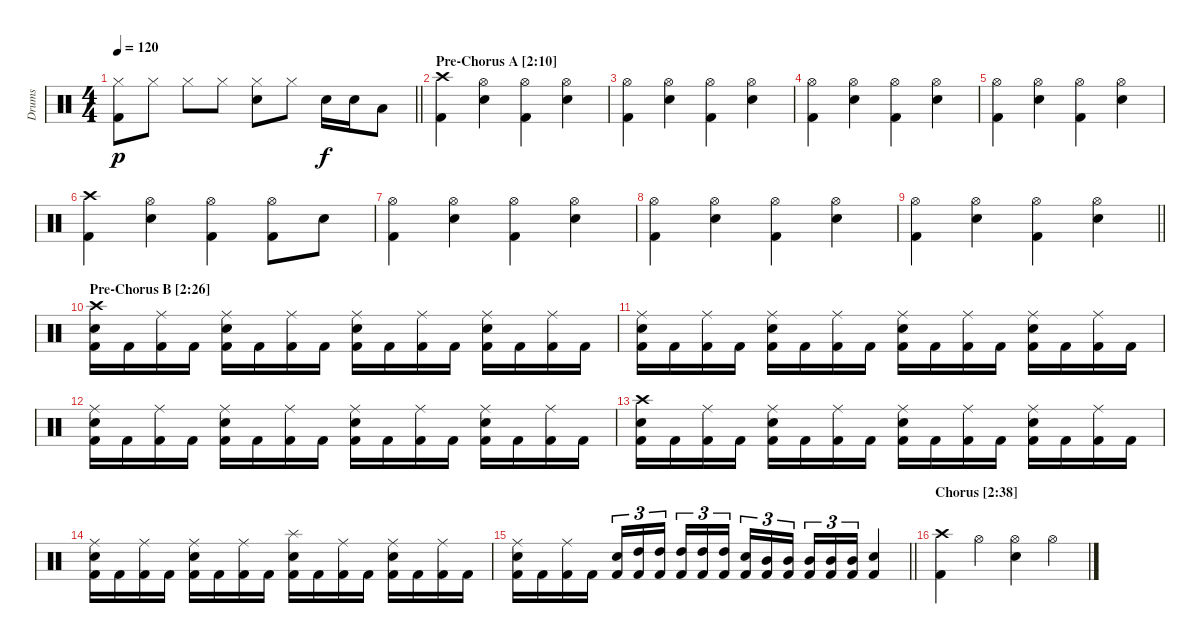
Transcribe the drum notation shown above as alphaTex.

\track ("Drums" "Drums") {instrument percussion}
\staff {score}
\articulation defaults
\ts (4 4)
\tempo 120
\clef neutral
\barLineRight lightlight
\ks c
("Hi-Hat (closed)" "Kick (hit) 2").8{dy p} "Hi-Hat (closed)".8 "Hi-Hat (closed)".8 "Hi-Hat (closed)".8 ("Hi-Hat (closed)" "Snare (hit) 2").8 "Hi-Hat (closed)".8 "Snare (hit) 2".16{dy f} "Snare (hit) 2".16 "Low Tom (hit)".8 |
\section ("" "Pre-Chorus A [2:10]")
("Crash high (hit)" "Kick (hit) 2").4 ("Hi-Hat (open)" "Snare (hit) 2").4 ("Hi-Hat (open)" "Kick (hit) 2").4 ("Hi-Hat (open)" "Snare (hit) 2").4 |
("Hi-Hat (open)" "Kick (hit) 2").4 ("Hi-Hat (open)" "Snare (hit) 2").4 ("Hi-Hat (open)" "Kick (hit) 2").4 ("Hi-Hat (open)" "Snare (hit) 2").4 |
("Hi-Hat (open)" "Kick (hit) 2").4 ("Hi-Hat (open)" "Snare (hit) 2").4 ("Hi-Hat (open)" "Kick (hit) 2").4 ("Hi-Hat (open)" "Snare (hit) 2").4 |
("Hi-Hat (open)" "Kick (hit) 2").4 ("Hi-Hat (open)" "Snare (hit) 2").4 ("Hi-Hat (open)" "Kick (hit) 2").4 ("Hi-Hat (open)" "Snare (hit) 2").4 |
("Crash high (hit)" "Kick (hit) 2").4 ("Hi-Hat (open)" "Snare (hit) 2").4 ("Hi-Hat (open)" "Kick (hit) 2").4 ("Hi-Hat (open)" "Kick (hit) 2").8 "Snare (hit) 2".8 |
("Hi-Hat (open)" "Kick (hit) 2").4 ("Hi-Hat (open)" "Snare (hit) 2").4 ("Hi-Hat (open)" "Kick (hit) 2").4 ("Hi-Hat (open)" "Snare (hit) 2").4 |
("Hi-Hat (open)" "Kick (hit) 2").4 ("Hi-Hat (open)" "Snare (hit) 2").4 ("Hi-Hat (open)" "Kick (hit) 2").4 ("Hi-Hat (open)" "Snare (hit) 2").4 |
\barLineRight lightlight
("Hi-Hat (open)" "Kick (hit) 2").4 ("Hi-Hat (open)" "Snare (hit) 2").4 ("Hi-Hat (open)" "Kick (hit) 2").4 ("Hi-Hat (open)" "Snare (hit) 2").4 |
\section ("" "Pre-Chorus B [2:26]")
("Crash high (hit)" "Snare (hit) 2" "Kick (hit) 2").16 "Kick (hit) 2".16 ("Ride (middle)" "Kick (hit) 2").16 "Kick (hit) 2".16 ("Ride (middle)" "Snare (hit) 2" "Kick (hit) 2").16 "Kick (hit) 2".16 ("Ride (middle)" "Kick (hit) 2").16 "Kick (hit) 2".16 ("Ride (middle)" "Snare (hit) 2" "Kick (hit) 2").16 "Kick (hit) 2".16 ("Ride (middle)" "Kick (hit) 2").16 "Kick (hit) 2".16 ("Ride (middle)" "Snare (hit) 2" "Kick (hit) 2").16 "Kick (hit) 2".16 ("Ride (middle)" "Kick (hit) 2").16 "Kick (hit) 2".16 |
("Ride (middle)" "Snare (hit) 2" "Kick (hit) 2").16 "Kick (hit) 2".16 ("Ride (middle)" "Kick (hit) 2").16 "Kick (hit) 2".16 ("Ride (middle)" "Snare (hit) 2" "Kick (hit) 2").16 "Kick (hit) 2".16 ("Ride (middle)" "Kick (hit) 2").16 "Kick (hit) 2".16 ("Ride (middle)" "Snare (hit) 2" "Kick (hit) 2").16 "Kick (hit) 2".16 ("Ride (middle)" "Kick (hit) 2").16 "Kick (hit) 2".16 ("Ride (middle)" "Snare (hit) 2" "Kick (hit) 2").16 "Kick (hit) 2".16 ("Ride (middle)" "Kick (hit) 2").16 "Kick (hit) 2".16 |
("Ride (middle)" "Snare (hit) 2" "Kick (hit) 2").16 "Kick (hit) 2".16 ("Ride (middle)" "Kick (hit) 2").16 "Kick (hit) 2".16 ("Ride (middle)" "Snare (hit) 2" "Kick (hit) 2").16 "Kick (hit) 2".16 ("Ride (middle)" "Kick (hit) 2").16 "Kick (hit) 2".16 ("Ride (middle)" "Snare (hit) 2" "Kick (hit) 2").16 "Kick (hit) 2".16 ("Ride (middle)" "Kick (hit) 2").16 "Kick (hit) 2".16 ("Ride (middle)" "Snare (hit) 2" "Kick (hit) 2").16 "Kick (hit) 2".16 ("Ride (middle)" "Kick (hit) 2").16 "Kick (hit) 2".16 |
("Crash high (hit)" "Snare (hit) 2" "Kick (hit) 2").16 "Kick (hit) 2".16 ("Ride (middle)" "Kick (hit) 2").16 "Kick (hit) 2".16 ("Ride (middle)" "Snare (hit) 2" "Kick (hit) 2").16 "Kick (hit) 2".16 ("Ride (middle)" "Kick (hit) 2").16 "Kick (hit) 2".16 ("Ride (middle)" "Snare (hit) 2" "Kick (hit) 2").16 "Kick (hit) 2".16 ("Ride (middle)" "Kick (hit) 2").16 "Kick (hit) 2".16 ("Ride (middle)" "Snare (hit) 2" "Kick (hit) 2").16 "Kick (hit) 2".16 ("Ride (middle)" "Kick (hit) 2").16 "Kick (hit) 2".16 |
("Ride (middle)" "Snare (hit) 2" "Kick (hit) 2").16 "Kick (hit) 2".16 ("Ride (middle)" "Kick (hit) 2").16 "Kick (hit) 2".16 ("Ride (middle)" "Snare (hit) 2" "Kick (hit) 2").16 "Kick (hit) 2".16 ("Ride (middle)" "Kick (hit) 2").16 "Kick (hit) 2".16 ("Splash (hit)" "Snare (hit) 2" "Kick (hit) 2").16 "Kick (hit) 2".16 ("Ride (middle)" "Kick (hit) 2").16 "Kick (hit) 2".16 ("Ride (middle)" "Snare (hit) 2" "Kick (hit) 2").16 "Kick (hit) 2".16 ("Ride (middle)" "Kick (hit) 2").16 "Kick (hit) 2".16 |
\barLineRight lightlight
("Ride (middle)" "Snare (hit) 2" "Kick (hit) 2").16 "Kick (hit) 2".16 ("Ride (middle)" "Kick (hit) 2").16 "Kick (hit) 2".16 ("Snare (hit) 2" "Kick (hit) 2").16{tu (3 2)} ("High Tom (hit)" "Kick (hit) 2").16{tu (3 2)} ("High Tom (hit)" "Kick (hit) 2").16{tu (3 2) beam splitsecondary} ("High Tom (hit)" "Kick (hit) 2").16{tu (3 2)} ("High Tom (hit)" "Kick (hit) 2").16{tu (3 2)} ("High Tom (hit)" "Kick (hit) 2").16{tu (3 2)} ("Snare (hit) 2" "Kick (hit) 2").16{tu (3 2)} ("Mid Tom (hit)" "Kick (hit) 2").16{tu (3 2)} ("Mid Tom (hit)" "Kick (hit) 2").16{tu (3 2) beam splitsecondary} ("Mid Tom (hit)" "Kick (hit) 2").16{tu (3 2)} ("Mid Tom (hit)" "Kick (hit) 2").16{tu (3 2)} ("Mid Tom (hit)" "Kick (hit) 2").16{tu (3 2)} ("Snare (hit) 2" "Kick (hit) 2").4 |
\section ("" "Chorus [2:38]")
("Crash high (hit)" "Kick (hit) 2").4 "Hi-Hat (open)".4 ("Hi-Hat (open)" "Snare (hit) 2").4 "Hi-Hat (open)".4
